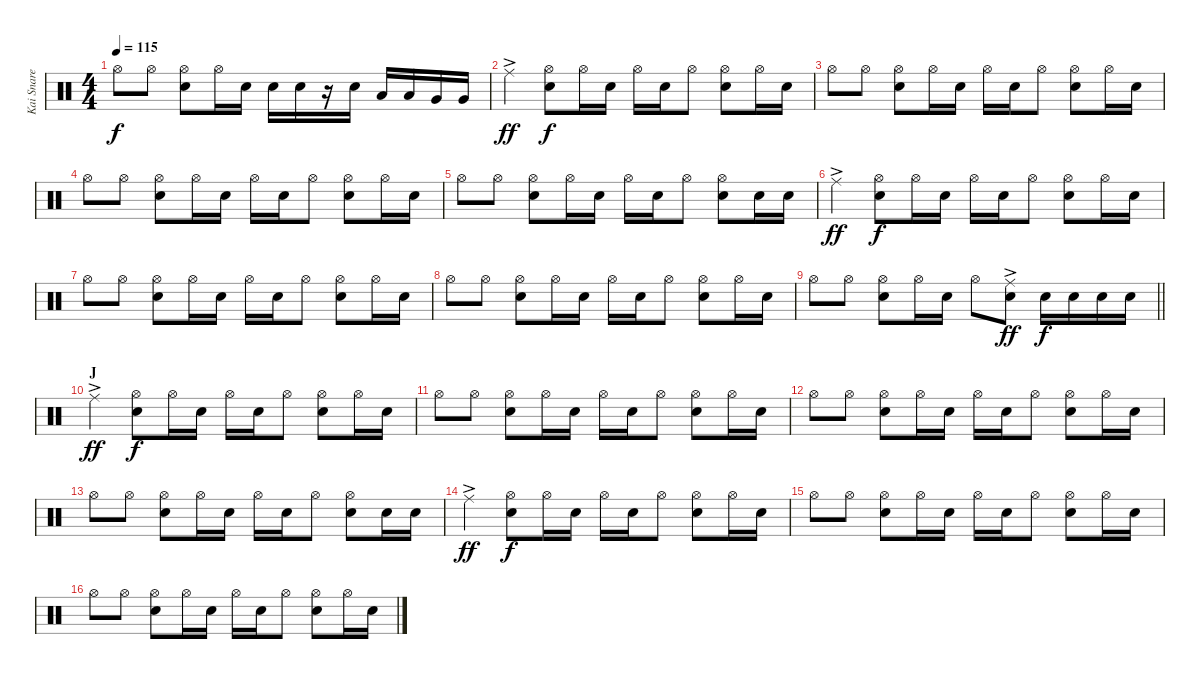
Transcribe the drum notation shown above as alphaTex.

\track ("Kai Snare" "Kai Snare") {instrument percussion}
\staff {score}
\articulation defaults
\ts (4 4)
\tempo 115
\clef neutral
\ks c "Hi-Hat (open)".8{dy f} "Hi-Hat (open)".8
("Hi-Hat (open)" "Snare (hit) 2").8 "Hi-Hat (open)".16 "Snare (hit) 2".16 "Snare (hit) 2".16 "Snare (hit) 2".16 r.16 "Snare (hit) 2".16 "Low Tom (hit)".16 "Low Tom (hit)".16 "Very Low Tom (hit)".16 "Very Low Tom (hit)".16 |
"Ride (middle)"{ac}.4{dy ff} ("Hi-Hat (open)" "Snare (hit) 2").8{dy f} "Hi-Hat (open)".16 "Snare (hit) 2".16 "Hi-Hat (open)".16 "Snare (hit) 2".16 "Hi-Hat (open)".8 ("Hi-Hat (open)" "Snare (hit) 2").8 "Hi-Hat (open)".16 "Snare (hit) 2".16 |
"Hi-Hat (open)".8 "Hi-Hat (open)".8 ("Hi-Hat (open)" "Snare (hit) 2").8 "Hi-Hat (open)".16 "Snare (hit) 2".16 "Hi-Hat (open)".16 "Snare (hit) 2".16 "Hi-Hat (open)".8 ("Hi-Hat (open)" "Snare (hit) 2").8 "Hi-Hat (open)".16 "Snare (hit) 2".16 |
"Hi-Hat (open)".8 "Hi-Hat (open)".8 ("Hi-Hat (open)" "Snare (hit) 2").8 "Hi-Hat (open)".16 "Snare (hit) 2".16 "Hi-Hat (open)".16 "Snare (hit) 2".16 "Hi-Hat (open)".8 ("Hi-Hat (open)" "Snare (hit) 2").8 "Hi-Hat (open)".16 "Snare (hit) 2".16 |
"Hi-Hat (open)".8 "Hi-Hat (open)".8 ("Hi-Hat (open)" "Snare (hit) 2").8 "Hi-Hat (open)".16 "Snare (hit) 2".16 "Hi-Hat (open)".16 "Snare (hit) 2".16 "Hi-Hat (open)".8 ("Hi-Hat (open)" "Snare (hit) 2").8 "Snare (hit) 2".16 "Snare (hit) 2".16 |
"Ride (middle)"{ac}.4{dy ff} ("Hi-Hat (open)" "Snare (hit) 2").8{dy f} "Hi-Hat (open)".16 "Snare (hit) 2".16 "Hi-Hat (open)".16 "Snare (hit) 2".16 "Hi-Hat (open)".8 ("Hi-Hat (open)" "Snare (hit) 2").8 "Hi-Hat (open)".16 "Snare (hit) 2".16 |
"Hi-Hat (open)".8 "Hi-Hat (open)".8 ("Hi-Hat (open)" "Snare (hit) 2").8 "Hi-Hat (open)".16 "Snare (hit) 2".16 "Hi-Hat (open)".16 "Snare (hit) 2".16 "Hi-Hat (open)".8 ("Hi-Hat (open)" "Snare (hit) 2").8 "Hi-Hat (open)".16 "Snare (hit) 2".16 |
"Hi-Hat (open)".8 "Hi-Hat (open)".8 ("Hi-Hat (open)" "Snare (hit) 2").8 "Hi-Hat (open)".16 "Snare (hit) 2".16 "Hi-Hat (open)".16 "Snare (hit) 2".16 "Hi-Hat (open)".8 ("Hi-Hat (open)" "Snare (hit) 2").8 "Hi-Hat (open)".16 "Snare (hit) 2".16 |
\barLineRight lightlight "Hi-Hat (open)".8 "Hi-Hat (open)".8
("Hi-Hat (open)" "Snare (hit) 2").8 "Hi-Hat (open)".16 "Snare (hit) 2".16 "Hi-Hat (open)".8 ("Ride (middle)"{ac} "Snare (hit) 2").8{dy ff} "Snare (hit) 2".16{dy f} "Snare (hit) 2".16 "Snare (hit) 2".16 "Snare (hit) 2".16 |
\section ("" "J")
"Ride (middle)"{ac}.4{dy ff} ("Hi-Hat (open)" "Snare (hit) 2").8{dy f} "Hi-Hat (open)".16 "Snare (hit) 2".16 "Hi-Hat (open)".16 "Snare (hit) 2".16 "Hi-Hat (open)".8 ("Hi-Hat (open)" "Snare (hit) 2").8 "Hi-Hat (open)".16 "Snare (hit) 2".16 |
"Hi-Hat (open)".8 "Hi-Hat (open)".8 ("Hi-Hat (open)" "Snare (hit) 2").8 "Hi-Hat (open)".16 "Snare (hit) 2".16 "Hi-Hat (open)".16 "Snare (hit) 2".16 "Hi-Hat (open)".8 ("Hi-Hat (open)" "Snare (hit) 2").8 "Hi-Hat (open)".16 "Snare (hit) 2".16 |
"Hi-Hat (open)".8 "Hi-Hat (open)".8 ("Hi-Hat (open)" "Snare (hit) 2").8 "Hi-Hat (open)".16 "Snare (hit) 2".16 "Hi-Hat (open)".16 "Snare (hit) 2".16 "Hi-Hat (open)".8 ("Hi-Hat (open)" "Snare (hit) 2").8 "Hi-Hat (open)".16 "Snare (hit) 2".16 |
"Hi-Hat (open)".8 "Hi-Hat (open)".8 ("Hi-Hat (open)" "Snare (hit) 2").8 "Hi-Hat (open)".16 "Snare (hit) 2".16 "Hi-Hat (open)".16 "Snare (hit) 2".16 "Hi-Hat (open)".8 ("Hi-Hat (open)" "Snare (hit) 2").8 "Snare (hit) 2".16 "Snare (hit) 2".16 |
"Ride (middle)"{ac}.4{dy ff} ("Hi-Hat (open)" "Snare (hit) 2").8{dy f} "Hi-Hat (open)".16 "Snare (hit) 2".16 "Hi-Hat (open)".16 "Snare (hit) 2".16 "Hi-Hat (open)".8 ("Hi-Hat (open)" "Snare (hit) 2").8 "Hi-Hat (open)".16 "Snare (hit) 2".16 |
"Hi-Hat (open)".8 "Hi-Hat (open)".8 ("Hi-Hat (open)" "Snare (hit) 2").8 "Hi-Hat (open)".16 "Snare (hit) 2".16 "Hi-Hat (open)".16 "Snare (hit) 2".16 "Hi-Hat (open)".8 ("Hi-Hat (open)" "Snare (hit) 2").8 "Hi-Hat (open)".16 "Snare (hit) 2".16 |
"Hi-Hat (open)".8 "Hi-Hat (open)".8 ("Hi-Hat (open)" "Snare (hit) 2").8 "Hi-Hat (open)".16 "Snare (hit) 2".16 "Hi-Hat (open)".16 "Snare (hit) 2".16 "Hi-Hat (open)".8 ("Hi-Hat (open)" "Snare (hit) 2").8 "Hi-Hat (open)".16 "Snare (hit) 2".16
